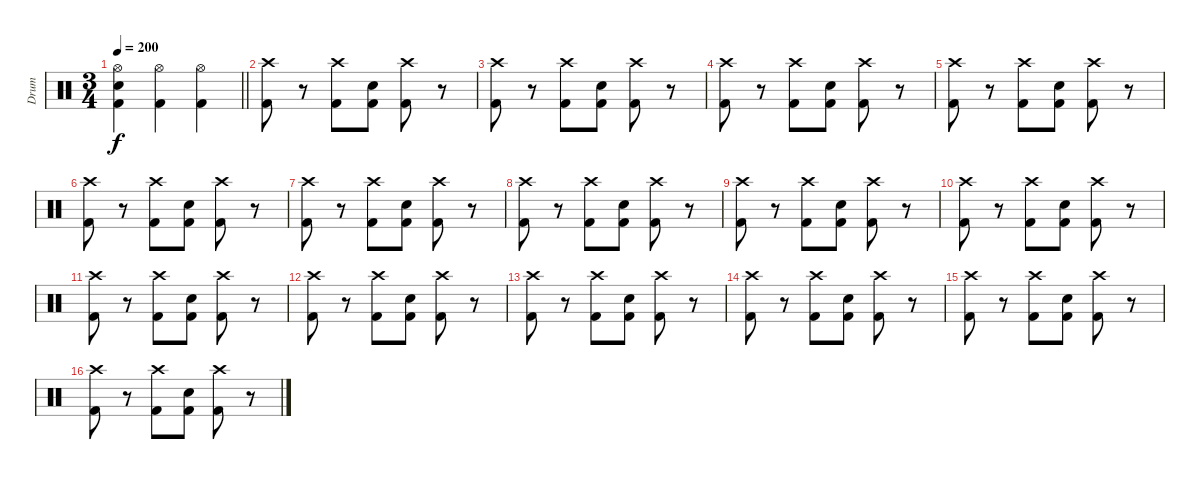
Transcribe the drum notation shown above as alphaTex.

\track ("Drum" "Drum") {instrument percussion}
\staff {score}
\articulation defaults
\ts (3 4)
\tempo 200
\clef neutral
\barLineRight lightlight
\ks c
("Hi-Hat (open)" "Electric Snare (hit)" "Kick (hit) 2").4{dy f} ("Hi-Hat (open)" "Kick (hit) 2").4 ("Hi-Hat (open)" "Kick (hit) 2").4 |
("Crash high (hit)" "Kick (hit) 2").8 r.8 ("Crash high (hit)" "Kick (hit) 2").8 ("Electric Snare (hit)" "Kick (hit) 2").8 ("Crash high (hit)" "Kick (hit) 2").8 r.8 |
("Crash high (hit)" "Kick (hit) 2").8 r.8 ("Crash high (hit)" "Kick (hit) 2").8 ("Electric Snare (hit)" "Kick (hit) 2").8 ("Crash high (hit)" "Kick (hit) 2").8 r.8 |
("Crash high (hit)" "Kick (hit) 2").8 r.8 ("Crash high (hit)" "Kick (hit) 2").8 ("Electric Snare (hit)" "Kick (hit) 2").8 ("Crash high (hit)" "Kick (hit) 2").8 r.8 |
("Crash high (hit)" "Kick (hit) 2").8 r.8 ("Crash high (hit)" "Kick (hit) 2").8 ("Electric Snare (hit)" "Kick (hit) 2").8 ("Crash high (hit)" "Kick (hit) 2").8 r.8 |
("Crash high (hit)" "Kick (hit) 2").8 r.8 ("Crash high (hit)" "Kick (hit) 2").8 ("Electric Snare (hit)" "Kick (hit) 2").8 ("Crash high (hit)" "Kick (hit) 2").8 r.8 |
("Crash high (hit)" "Kick (hit) 2").8 r.8 ("Crash high (hit)" "Kick (hit) 2").8 ("Electric Snare (hit)" "Kick (hit) 2").8 ("Crash high (hit)" "Kick (hit) 2").8 r.8 |
("Crash high (hit)" "Kick (hit) 2").8 r.8 ("Crash high (hit)" "Kick (hit) 2").8 ("Electric Snare (hit)" "Kick (hit) 2").8 ("Crash high (hit)" "Kick (hit) 2").8 r.8 |
("Crash high (hit)" "Kick (hit) 2").8 r.8 ("Crash high (hit)" "Kick (hit) 2").8 ("Electric Snare (hit)" "Kick (hit) 2").8 ("Crash high (hit)" "Kick (hit) 2").8 r.8 |
("Crash high (hit)" "Kick (hit) 2").8 r.8 ("Crash high (hit)" "Kick (hit) 2").8 ("Electric Snare (hit)" "Kick (hit) 2").8 ("Crash high (hit)" "Kick (hit) 2").8 r.8 |
("Crash high (hit)" "Kick (hit) 2").8 r.8 ("Crash high (hit)" "Kick (hit) 2").8 ("Electric Snare (hit)" "Kick (hit) 2").8 ("Crash high (hit)" "Kick (hit) 2").8 r.8 |
("Crash high (hit)" "Kick (hit) 2").8 r.8 ("Crash high (hit)" "Kick (hit) 2").8 ("Electric Snare (hit)" "Kick (hit) 2").8 ("Crash high (hit)" "Kick (hit) 2").8 r.8 |
("Crash high (hit)" "Kick (hit) 2").8 r.8 ("Crash high (hit)" "Kick (hit) 2").8 ("Electric Snare (hit)" "Kick (hit) 2").8 ("Crash high (hit)" "Kick (hit) 2").8 r.8 |
("Crash high (hit)" "Kick (hit) 2").8 r.8 ("Crash high (hit)" "Kick (hit) 2").8 ("Electric Snare (hit)" "Kick (hit) 2").8 ("Crash high (hit)" "Kick (hit) 2").8 r.8 |
("Crash high (hit)" "Kick (hit) 2").8 r.8 ("Crash high (hit)" "Kick (hit) 2").8 ("Electric Snare (hit)" "Kick (hit) 2").8 ("Crash high (hit)" "Kick (hit) 2").8 r.8 |
("Crash high (hit)" "Kick (hit) 2").8 r.8 ("Crash high (hit)" "Kick (hit) 2").8 ("Electric Snare (hit)" "Kick (hit) 2").8 ("Crash high (hit)" "Kick (hit) 2").8 r.8
